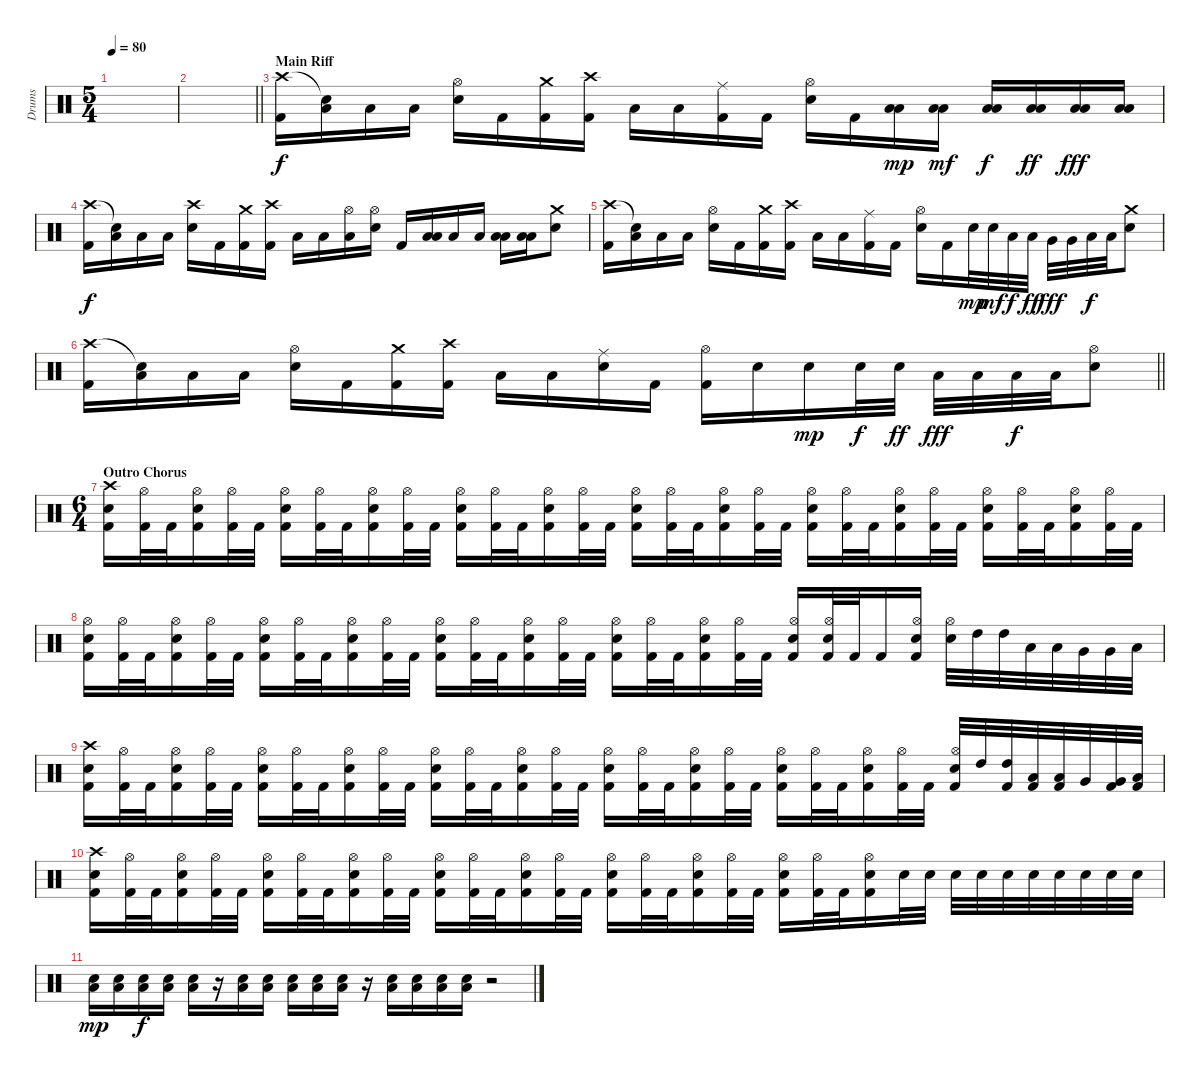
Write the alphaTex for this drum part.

\track ("Drums" "Drums") {instrument percussion}
\staff {score}
\articulation defaults
\ts (5 4)
\tempo 80
\clef neutral
\ks c
|
\barLineRight lightlight
|
\section ("" "Main Riff")
("Crash high (hit)" "Kick (hit) 2").16{dy f} ("Snare (hit)"{t} "Low Floor Tom (hit)").16 "Low Floor Tom (hit)".16 "Low Floor Tom (hit)".16 ("Hi-Hat (open)" "Electric Snare (hit)").16 "Kick (hit) 2".16 ("Crash medium (hit)" "Kick (hit) 2").16 ("Crash high (hit)" "Kick (hit) 2").16 "Low Floor Tom (hit)".16 "Low Floor Tom (hit)".16 ("Ride (middle)" "Kick (hit) 2").16 "Kick (hit) 2".16 ("Hi-Hat (open)" "Electric Snare (hit)").16 "Kick (hit) 2".16 ("Low Tom (hit)" "Low Floor Tom (hit)").16{dy mp} ("Low Tom (hit)" "Low Floor Tom (hit)").16{dy mf} ("Low Tom (hit)" "Low Floor Tom (hit)").16{dy f} ("Low Tom (hit)" "Low Floor Tom (hit)").16{dy ff} ("Low Tom (hit)" "Low Floor Tom (hit)").16{dy fff} ("Low Tom (hit)" "Low Floor Tom (hit)").16 |
("Crash high (hit)" "Kick (hit) 2").16{dy f} ("Snare (hit)"{t} "Low Floor Tom (hit)").16 "Low Floor Tom (hit)".16 "Low Floor Tom (hit)".16 ("Crash high (hit)" "Electric Snare (hit)").16 "Kick (hit) 2".16 ("Crash medium (hit)" "Kick (hit) 2").16 ("Crash high (hit)" "Kick (hit) 2").16 "Low Floor Tom (hit)".16 "Low Floor Tom (hit)".16 ("Hi-Hat (open)" "Low Floor Tom (hit)").16 ("Hi-Hat (open)" "Electric Snare (hit)").16 "Kick (hit) 2".16 ("Low Tom (hit)" "Low Floor Tom (hit)").16 "Low Floor Tom (hit)".16 "Low Floor Tom (hit)".16 ("Low Tom (hit)" "Low Floor Tom (hit)").16 ("Low Tom (hit)" "Low Floor Tom (hit)").16 ("Crash medium (hit)" "Electric Snare (hit)").8 |
("Crash high (hit)" "Kick (hit) 2").16 ("Snare (hit)"{t} "Low Floor Tom (hit)").16 "Low Floor Tom (hit)".16 "Low Floor Tom (hit)".16 ("Hi-Hat (open)" "Electric Snare (hit)").16 "Kick (hit) 2".16 ("Crash medium (hit)" "Kick (hit) 2").16 ("Crash high (hit)" "Kick (hit) 2").16 "Low Floor Tom (hit)".16 "Low Floor Tom (hit)".16 ("Ride (middle)" "Kick (hit) 2").16 "Kick (hit) 2".16 ("Hi-Hat (open)" "Electric Snare (hit)").16 "Kick (hit) 2".16 "Electric Snare (hit)".32{dy mp} "Electric Snare (hit)".32{dy mf} "Low Tom (hit)".32{dy f} "Low Tom (hit)".32{dy ff} "Very Low Tom (hit)".32{dy fff} "Very Low Tom (hit)".32 "Low Floor Tom (hit)".32{dy f} "Low Floor Tom (hit)".32 ("Crash medium (hit)" "Electric Snare (hit)").8 |
\barLineRight lightlight
("Crash high (hit)" "Kick (hit) 2").16 ("Snare (hit)"{t} "Low Floor Tom (hit)").16 "Low Floor Tom (hit)".16 "Low Floor Tom (hit)".16 ("Hi-Hat (open)" "Electric Snare (hit)").16 "Kick (hit) 2".16 ("Crash medium (hit)" "Kick (hit) 2").16 ("Crash high (hit)" "Kick (hit) 2").16 "Low Floor Tom (hit)".16 "Low Floor Tom (hit)".16 ("Ride (middle)" "Electric Snare (hit)").16 "Kick (hit) 2".16 ("Hi-Hat (open)" "Kick (hit) 2").16 "Electric Snare (hit)".16 "Electric Snare (hit)".16{dy mp} "Electric Snare (hit)".32{dy f} "Electric Snare (hit)".32{dy ff} "Low Tom (hit)".32{dy fff} "Low Tom (hit)".32 "Low Floor Tom (hit)".32{dy f} "Low Floor Tom (hit)".32 ("Hi-Hat (open)" "Electric Snare (hit)").8 |
\ts (6 4)
\section ("" "Outro Chorus")
("Crash high (hit)" "Electric Snare (hit)" "Kick (hit) 2").16 ("Hi-Hat (open)" "Kick (hit) 2").32 "Kick (hit) 2".32 ("Hi-Hat (open)" "Electric Snare (hit)" "Kick (hit) 2").16 ("Hi-Hat (open)" "Kick (hit) 2").32 "Kick (hit) 2".32 ("Hi-Hat (open)" "Electric Snare (hit)" "Kick (hit) 2").16 ("Hi-Hat (open)" "Kick (hit) 2").32 "Kick (hit) 2".32 ("Hi-Hat (open)" "Electric Snare (hit)" "Kick (hit) 2").16 ("Hi-Hat (open)" "Kick (hit) 2").32 "Kick (hit) 2".32 ("Hi-Hat (open)" "Electric Snare (hit)" "Kick (hit) 2").16 ("Hi-Hat (open)" "Kick (hit) 2").32 "Kick (hit) 2".32 ("Hi-Hat (open)" "Electric Snare (hit)" "Kick (hit) 2").16 ("Hi-Hat (open)" "Kick (hit) 2").32 "Kick (hit) 2".32 ("Hi-Hat (open)" "Electric Snare (hit)" "Kick (hit) 2").16 ("Hi-Hat (open)" "Kick (hit) 2").32 "Kick (hit) 2".32 ("Hi-Hat (open)" "Electric Snare (hit)" "Kick (hit) 2").16 ("Hi-Hat (open)" "Kick (hit) 2").32 "Kick (hit) 2".32 ("Hi-Hat (open)" "Electric Snare (hit)" "Kick (hit) 2").16 ("Hi-Hat (open)" "Kick (hit) 2").32 "Kick (hit) 2".32 ("Hi-Hat (open)" "Electric Snare (hit)" "Kick (hit) 2").16 ("Hi-Hat (open)" "Kick (hit) 2").32 "Kick (hit) 2".32 ("Hi-Hat (open)" "Electric Snare (hit)" "Kick (hit) 2").16 ("Hi-Hat (open)" "Kick (hit) 2").32 "Kick (hit) 2".32 ("Hi-Hat (open)" "Electric Snare (hit)" "Kick (hit) 2").16 ("Hi-Hat (open)" "Kick (hit) 2").32 "Kick (hit) 2".32 |
("Hi-Hat (open)" "Electric Snare (hit)" "Kick (hit) 2").16 ("Hi-Hat (open)" "Kick (hit) 2").32 "Kick (hit) 2".32 ("Hi-Hat (open)" "Electric Snare (hit)" "Kick (hit) 2").16 ("Hi-Hat (open)" "Kick (hit) 2").32 "Kick (hit) 2".32 ("Hi-Hat (open)" "Electric Snare (hit)" "Kick (hit) 2").16 ("Hi-Hat (open)" "Kick (hit) 2").32 "Kick (hit) 2".32 ("Hi-Hat (open)" "Electric Snare (hit)" "Kick (hit) 2").16 ("Hi-Hat (open)" "Kick (hit) 2").32 "Kick (hit) 2".32 ("Hi-Hat (open)" "Electric Snare (hit)" "Kick (hit) 2").16 ("Hi-Hat (open)" "Kick (hit) 2").32 "Kick (hit) 2".32 ("Hi-Hat (open)" "Electric Snare (hit)" "Kick (hit) 2").16 ("Hi-Hat (open)" "Kick (hit) 2").32 "Kick (hit) 2".32 ("Hi-Hat (open)" "Electric Snare (hit)" "Kick (hit) 2").16 ("Hi-Hat (open)" "Kick (hit) 2").32 "Kick (hit) 2".32 ("Hi-Hat (open)" "Electric Snare (hit)" "Kick (hit) 2").16 ("Hi-Hat (open)" "Kick (hit) 2").32 "Kick (hit) 2".32 ("Hi-Hat (open)" "Kick (hit) 2" "Electric Snare (hit)").16 ("Hi-Hat (open)" "Kick (hit) 2" "Electric Snare (hit)").32 "Kick (hit) 2".32 "Kick (hit) 2".16 ("Hi-Hat (open)" "Kick (hit) 2" "Electric Snare (hit)").16 ("Hi-Hat (open)" "Electric Snare (hit)").32 "High Tom (hit)".32 "High Tom (hit)".32 "Low Tom (hit)".32 "Low Tom (hit)".32 "Very Low Tom (hit)".32 "Very Low Tom (hit)".32 "Low Floor Tom (hit)".32 |
("Crash high (hit)" "Electric Snare (hit)" "Kick (hit) 2").16 ("Hi-Hat (open)" "Kick (hit) 2").32 "Kick (hit) 2".32 ("Hi-Hat (open)" "Electric Snare (hit)" "Kick (hit) 2").16 ("Hi-Hat (open)" "Kick (hit) 2").32 "Kick (hit) 2".32 ("Hi-Hat (open)" "Electric Snare (hit)" "Kick (hit) 2").16 ("Hi-Hat (open)" "Kick (hit) 2").32 "Kick (hit) 2".32 ("Hi-Hat (open)" "Electric Snare (hit)" "Kick (hit) 2").16 ("Hi-Hat (open)" "Kick (hit) 2").32 "Kick (hit) 2".32 ("Hi-Hat (open)" "Electric Snare (hit)" "Kick (hit) 2").16 ("Hi-Hat (open)" "Kick (hit) 2").32 "Kick (hit) 2".32 ("Hi-Hat (open)" "Electric Snare (hit)" "Kick (hit) 2").16 ("Hi-Hat (open)" "Kick (hit) 2").32 "Kick (hit) 2".32 ("Hi-Hat (open)" "Electric Snare (hit)" "Kick (hit) 2").16 ("Hi-Hat (open)" "Kick (hit) 2").32 "Kick (hit) 2".32 ("Hi-Hat (open)" "Electric Snare (hit)" "Kick (hit) 2").16 ("Hi-Hat (open)" "Kick (hit) 2").32 "Kick (hit) 2".32 ("Hi-Hat (open)" "Electric Snare (hit)" "Kick (hit) 2").16 ("Hi-Hat (open)" "Kick (hit) 2").32 "Kick (hit) 2".32 ("Hi-Hat (open)" "Electric Snare (hit)" "Kick (hit) 2").16 ("Hi-Hat (open)" "Kick (hit) 2").32 "Kick (hit) 2".32 ("Hi-Hat (open)" "Electric Snare (hit)" "Kick (hit) 2").32 "High Tom (hit)".32 ("High Tom (hit)" "Kick (hit) 2").32 ("Low Tom (hit)" "Kick (hit) 2").32 ("Low Tom (hit)" "Kick (hit) 2").32 "Very Low Tom (hit)".32 ("Very Low Tom (hit)" "Kick (hit) 2").32 ("Low Floor Tom (hit)" "Kick (hit) 2").32 |
("Crash high (hit)" "Electric Snare (hit)" "Kick (hit) 2").16 ("Hi-Hat (open)" "Kick (hit) 2").32 "Kick (hit) 2".32 ("Hi-Hat (open)" "Electric Snare (hit)" "Kick (hit) 2").16 ("Hi-Hat (open)" "Kick (hit) 2").32 "Kick (hit) 2".32 ("Hi-Hat (open)" "Electric Snare (hit)" "Kick (hit) 2").16 ("Hi-Hat (open)" "Kick (hit) 2").32 "Kick (hit) 2".32 ("Hi-Hat (open)" "Electric Snare (hit)" "Kick (hit) 2").16 ("Hi-Hat (open)" "Kick (hit) 2").32 "Kick (hit) 2".32 ("Hi-Hat (open)" "Electric Snare (hit)" "Kick (hit) 2").16 ("Hi-Hat (open)" "Kick (hit) 2").32 "Kick (hit) 2".32 ("Hi-Hat (open)" "Electric Snare (hit)" "Kick (hit) 2").16 ("Hi-Hat (open)" "Kick (hit) 2").32 "Kick (hit) 2".32 ("Hi-Hat (open)" "Electric Snare (hit)" "Kick (hit) 2").16 ("Hi-Hat (open)" "Kick (hit) 2").32 "Kick (hit) 2".32 ("Hi-Hat (open)" "Electric Snare (hit)" "Kick (hit) 2").16 ("Hi-Hat (open)" "Kick (hit) 2").32 "Kick (hit) 2".32 ("Hi-Hat (open)" "Electric Snare (hit)" "Kick (hit) 2").16 ("Hi-Hat (open)" "Kick (hit) 2").32 "Kick (hit) 2".32 ("Hi-Hat (open)" "Electric Snare (hit)" "Kick (hit) 2").16 "Electric Snare (hit)".32 "Electric Snare (hit)".32 "Electric Snare (hit)".32 "Electric Snare (hit)".32 "Electric Snare (hit)".32 "Electric Snare (hit)".32 "Electric Snare (hit)".32 "Electric Snare (hit)".32 "Electric Snare (hit)".32 "Electric Snare (hit)".32 |
("Low Tom (hit)" "Electric Snare (hit)").16{dy mp} ("Low Tom (hit)" "Electric Snare (hit)").16 ("Low Tom (hit)" "Electric Snare (hit)").16{dy f} ("Low Tom (hit)" "Electric Snare (hit)").16 ("Low Tom (hit)" "Electric Snare (hit)").16 r.16 ("Low Tom (hit)" "Electric Snare (hit)").16 ("Low Tom (hit)" "Electric Snare (hit)").16 ("Low Tom (hit)" "Electric Snare (hit)").16 ("Low Tom (hit)" "Electric Snare (hit)").16 ("Low Tom (hit)" "Electric Snare (hit)").16 r.16 ("Low Floor Tom (hit)" "Electric Snare (hit)").16 ("Low Floor Tom (hit)" "Electric Snare (hit)").16 ("Low Floor Tom (hit)" "Electric Snare (hit)").16 ("Low Floor Tom (hit)" "Electric Snare (hit)").16 r.2
